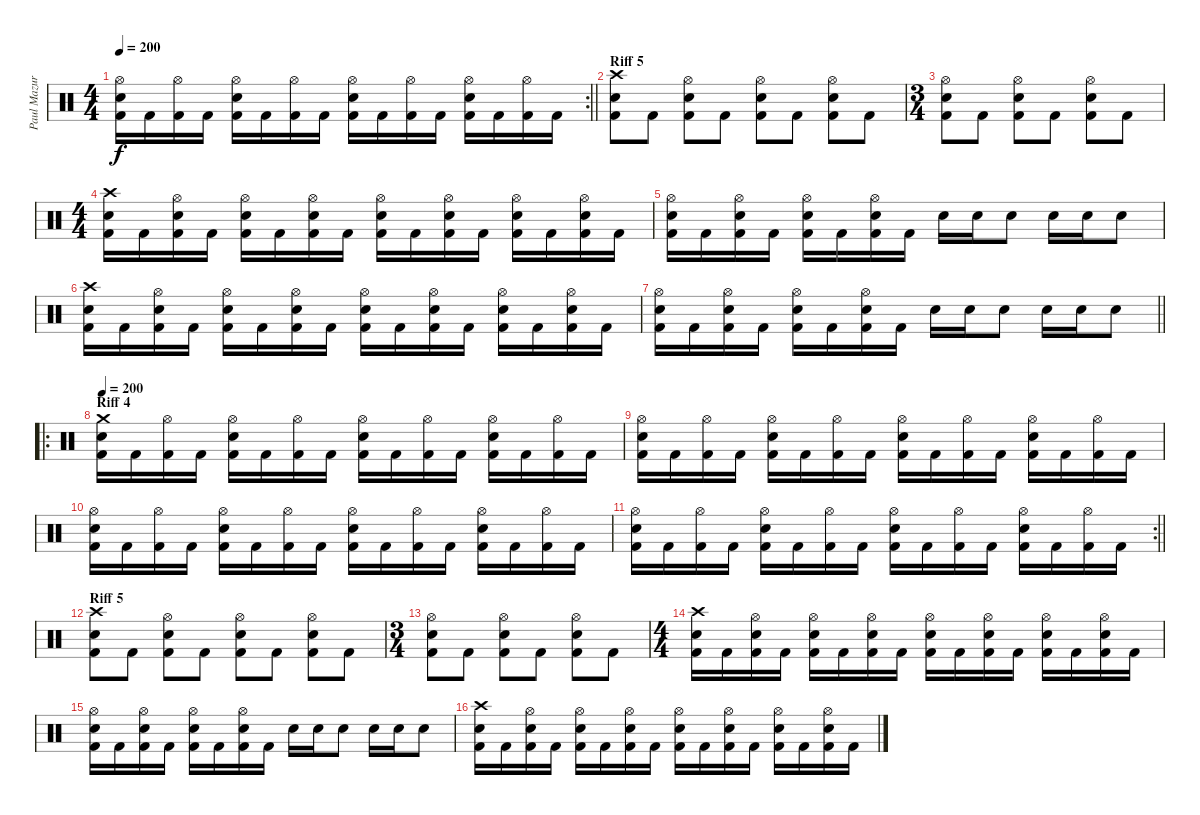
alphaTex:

\track ("Paul Mazurkiewicz" "Paul Mazur") {instrument percussion}
\staff {score}
\articulation defaults
\rc 2
\ts (4 4)
\tempo 200
\clef neutral
\barLineRight lightlight
\ks c
("Hi-Hat (open)" "Electric Snare (hit)" "Kick (hit) 2").16{dy f} "Kick (hit) 2".16 ("Hi-Hat (open)" "Kick (hit) 2").16 "Kick (hit) 2".16 ("Hi-Hat (open)" "Electric Snare (hit)" "Kick (hit) 2").16 "Kick (hit) 2".16 ("Hi-Hat (open)" "Kick (hit) 2").16 "Kick (hit) 2".16 ("Hi-Hat (open)" "Electric Snare (hit)" "Kick (hit) 2").16 "Kick (hit) 2".16 ("Hi-Hat (open)" "Kick (hit) 2").16 "Kick (hit) 2".16 ("Hi-Hat (open)" "Electric Snare (hit)" "Kick (hit) 2").16 "Kick (hit) 2".16 ("Hi-Hat (open)" "Kick (hit) 2").16 "Kick (hit) 2".16 |
\section ("" "Riff 5")
("Crash high (hit)" "Electric Snare (hit)" "Kick (hit) 2").8 "Kick (hit) 2".8 ("Hi-Hat (open)" "Electric Snare (hit)" "Kick (hit) 2").8 "Kick (hit) 2".8 ("Hi-Hat (open)" "Electric Snare (hit)" "Kick (hit) 2").8 "Kick (hit) 2".8 ("Hi-Hat (open)" "Electric Snare (hit)" "Kick (hit) 2").8 "Kick (hit) 2".8 |
\ts (3 4)
("Hi-Hat (open)" "Electric Snare (hit)" "Kick (hit) 2").8 "Kick (hit) 2".8 ("Hi-Hat (open)" "Electric Snare (hit)" "Kick (hit) 2").8 "Kick (hit) 2".8 ("Hi-Hat (open)" "Electric Snare (hit)" "Kick (hit) 2").8 "Kick (hit) 2".8 |
\ts (4 4)
("Crash high (hit)" "Electric Snare (hit)" "Kick (hit) 2").16 "Kick (hit) 2".16 ("Hi-Hat (open)" "Electric Snare (hit)" "Kick (hit) 2").16 "Kick (hit) 2".16 ("Hi-Hat (open)" "Electric Snare (hit)" "Kick (hit) 2").16 "Kick (hit) 2".16 ("Hi-Hat (open)" "Electric Snare (hit)" "Kick (hit) 2").16 "Kick (hit) 2".16 ("Hi-Hat (open)" "Electric Snare (hit)" "Kick (hit) 2").16 "Kick (hit) 2".16 ("Hi-Hat (open)" "Electric Snare (hit)" "Kick (hit) 2").16 "Kick (hit) 2".16 ("Hi-Hat (open)" "Electric Snare (hit)" "Kick (hit) 2").16 "Kick (hit) 2".16 ("Hi-Hat (open)" "Electric Snare (hit)" "Kick (hit) 2").16 "Kick (hit) 2".16 |
("Hi-Hat (open)" "Electric Snare (hit)" "Kick (hit) 2").16 "Kick (hit) 2".16 ("Hi-Hat (open)" "Electric Snare (hit)" "Kick (hit) 2").16 "Kick (hit) 2".16 ("Hi-Hat (open)" "Electric Snare (hit)" "Kick (hit) 2").16 "Kick (hit) 2".16 ("Hi-Hat (open)" "Electric Snare (hit)" "Kick (hit) 2").16 "Kick (hit) 2".16 "Electric Snare (hit)".16 "Electric Snare (hit)".16 "Electric Snare (hit)".8 "Electric Snare (hit)".16 "Electric Snare (hit)".16 "Electric Snare (hit)".8 |
("Crash high (hit)" "Electric Snare (hit)" "Kick (hit) 2").16 "Kick (hit) 2".16 ("Hi-Hat (open)" "Electric Snare (hit)" "Kick (hit) 2").16 "Kick (hit) 2".16 ("Hi-Hat (open)" "Electric Snare (hit)" "Kick (hit) 2").16 "Kick (hit) 2".16 ("Hi-Hat (open)" "Electric Snare (hit)" "Kick (hit) 2").16 "Kick (hit) 2".16 ("Hi-Hat (open)" "Electric Snare (hit)" "Kick (hit) 2").16 "Kick (hit) 2".16 ("Hi-Hat (open)" "Electric Snare (hit)" "Kick (hit) 2").16 "Kick (hit) 2".16 ("Hi-Hat (open)" "Electric Snare (hit)" "Kick (hit) 2").16 "Kick (hit) 2".16 ("Hi-Hat (open)" "Electric Snare (hit)" "Kick (hit) 2").16 "Kick (hit) 2".16 |
\barLineRight lightlight
("Hi-Hat (open)" "Electric Snare (hit)" "Kick (hit) 2").16 "Kick (hit) 2".16 ("Hi-Hat (open)" "Electric Snare (hit)" "Kick (hit) 2").16 "Kick (hit) 2".16 ("Hi-Hat (open)" "Electric Snare (hit)" "Kick (hit) 2").16 "Kick (hit) 2".16 ("Hi-Hat (open)" "Electric Snare (hit)" "Kick (hit) 2").16 "Kick (hit) 2".16 "Electric Snare (hit)".16 "Electric Snare (hit)".16 "Electric Snare (hit)".8 "Electric Snare (hit)".16 "Electric Snare (hit)".16 "Electric Snare (hit)".8 |
\ro
\section ("" "Riff 4")
\tempo 200
("Crash medium (hit)" "Electric Snare (hit)" "Kick (hit) 2").16 "Kick (hit) 2".16 ("Hi-Hat (open)" "Kick (hit) 2").16 "Kick (hit) 2".16 ("Hi-Hat (open)" "Electric Snare (hit)" "Kick (hit) 2").16 "Kick (hit) 2".16 ("Hi-Hat (open)" "Kick (hit) 2").16 "Kick (hit) 2".16 ("Hi-Hat (open)" "Electric Snare (hit)" "Kick (hit) 2").16 "Kick (hit) 2".16 ("Hi-Hat (open)" "Kick (hit) 2").16 "Kick (hit) 2".16 ("Hi-Hat (open)" "Electric Snare (hit)" "Kick (hit) 2").16 "Kick (hit) 2".16 ("Hi-Hat (open)" "Kick (hit) 2").16 "Kick (hit) 2".16 |
("Hi-Hat (open)" "Electric Snare (hit)" "Kick (hit) 2").16 "Kick (hit) 2".16 ("Hi-Hat (open)" "Kick (hit) 2").16 "Kick (hit) 2".16 ("Hi-Hat (open)" "Electric Snare (hit)" "Kick (hit) 2").16 "Kick (hit) 2".16 ("Hi-Hat (open)" "Kick (hit) 2").16 "Kick (hit) 2".16 ("Hi-Hat (open)" "Electric Snare (hit)" "Kick (hit) 2").16 "Kick (hit) 2".16 ("Hi-Hat (open)" "Kick (hit) 2").16 "Kick (hit) 2".16 ("Hi-Hat (open)" "Electric Snare (hit)" "Kick (hit) 2").16 "Kick (hit) 2".16 ("Hi-Hat (open)" "Kick (hit) 2").16 "Kick (hit) 2".16 |
("Hi-Hat (open)" "Electric Snare (hit)" "Kick (hit) 2").16 "Kick (hit) 2".16 ("Hi-Hat (open)" "Kick (hit) 2").16 "Kick (hit) 2".16 ("Hi-Hat (open)" "Electric Snare (hit)" "Kick (hit) 2").16 "Kick (hit) 2".16 ("Hi-Hat (open)" "Kick (hit) 2").16 "Kick (hit) 2".16 ("Hi-Hat (open)" "Electric Snare (hit)" "Kick (hit) 2").16 "Kick (hit) 2".16 ("Hi-Hat (open)" "Kick (hit) 2").16 "Kick (hit) 2".16 ("Hi-Hat (open)" "Electric Snare (hit)" "Kick (hit) 2").16 "Kick (hit) 2".16 ("Hi-Hat (open)" "Kick (hit) 2").16 "Kick (hit) 2".16 |
\rc 2
\barLineRight lightlight
("Hi-Hat (open)" "Electric Snare (hit)" "Kick (hit) 2").16 "Kick (hit) 2".16 ("Hi-Hat (open)" "Kick (hit) 2").16 "Kick (hit) 2".16 ("Hi-Hat (open)" "Electric Snare (hit)" "Kick (hit) 2").16 "Kick (hit) 2".16 ("Hi-Hat (open)" "Kick (hit) 2").16 "Kick (hit) 2".16 ("Hi-Hat (open)" "Electric Snare (hit)" "Kick (hit) 2").16 "Kick (hit) 2".16 ("Hi-Hat (open)" "Kick (hit) 2").16 "Kick (hit) 2".16 ("Hi-Hat (open)" "Electric Snare (hit)" "Kick (hit) 2").16 "Kick (hit) 2".16 ("Hi-Hat (open)" "Kick (hit) 2").16 "Kick (hit) 2".16 |
\section ("" "Riff 5")
("Crash high (hit)" "Electric Snare (hit)" "Kick (hit) 2").8 "Kick (hit) 2".8 ("Hi-Hat (open)" "Electric Snare (hit)" "Kick (hit) 2").8 "Kick (hit) 2".8 ("Hi-Hat (open)" "Electric Snare (hit)" "Kick (hit) 2").8 "Kick (hit) 2".8 ("Hi-Hat (open)" "Electric Snare (hit)" "Kick (hit) 2").8 "Kick (hit) 2".8 |
\ts (3 4)
("Hi-Hat (open)" "Electric Snare (hit)" "Kick (hit) 2").8 "Kick (hit) 2".8 ("Hi-Hat (open)" "Electric Snare (hit)" "Kick (hit) 2").8 "Kick (hit) 2".8 ("Hi-Hat (open)" "Electric Snare (hit)" "Kick (hit) 2").8 "Kick (hit) 2".8 |
\ts (4 4)
("Crash high (hit)" "Electric Snare (hit)" "Kick (hit) 2").16 "Kick (hit) 2".16 ("Hi-Hat (open)" "Electric Snare (hit)" "Kick (hit) 2").16 "Kick (hit) 2".16 ("Hi-Hat (open)" "Electric Snare (hit)" "Kick (hit) 2").16 "Kick (hit) 2".16 ("Hi-Hat (open)" "Electric Snare (hit)" "Kick (hit) 2").16 "Kick (hit) 2".16 ("Hi-Hat (open)" "Electric Snare (hit)" "Kick (hit) 2").16 "Kick (hit) 2".16 ("Hi-Hat (open)" "Electric Snare (hit)" "Kick (hit) 2").16 "Kick (hit) 2".16 ("Hi-Hat (open)" "Electric Snare (hit)" "Kick (hit) 2").16 "Kick (hit) 2".16 ("Hi-Hat (open)" "Electric Snare (hit)" "Kick (hit) 2").16 "Kick (hit) 2".16 |
("Hi-Hat (open)" "Electric Snare (hit)" "Kick (hit) 2").16 "Kick (hit) 2".16 ("Hi-Hat (open)" "Electric Snare (hit)" "Kick (hit) 2").16 "Kick (hit) 2".16 ("Hi-Hat (open)" "Electric Snare (hit)" "Kick (hit) 2").16 "Kick (hit) 2".16 ("Hi-Hat (open)" "Electric Snare (hit)" "Kick (hit) 2").16 "Kick (hit) 2".16 "Electric Snare (hit)".16 "Electric Snare (hit)".16 "Electric Snare (hit)".8 "Electric Snare (hit)".16 "Electric Snare (hit)".16 "Electric Snare (hit)".8 |
("Crash high (hit)" "Electric Snare (hit)" "Kick (hit) 2").16 "Kick (hit) 2".16 ("Hi-Hat (open)" "Electric Snare (hit)" "Kick (hit) 2").16 "Kick (hit) 2".16 ("Hi-Hat (open)" "Electric Snare (hit)" "Kick (hit) 2").16 "Kick (hit) 2".16 ("Hi-Hat (open)" "Electric Snare (hit)" "Kick (hit) 2").16 "Kick (hit) 2".16 ("Hi-Hat (open)" "Electric Snare (hit)" "Kick (hit) 2").16 "Kick (hit) 2".16 ("Hi-Hat (open)" "Electric Snare (hit)" "Kick (hit) 2").16 "Kick (hit) 2".16 ("Hi-Hat (open)" "Electric Snare (hit)" "Kick (hit) 2").16 "Kick (hit) 2".16 ("Hi-Hat (open)" "Electric Snare (hit)" "Kick (hit) 2").16 "Kick (hit) 2".16
